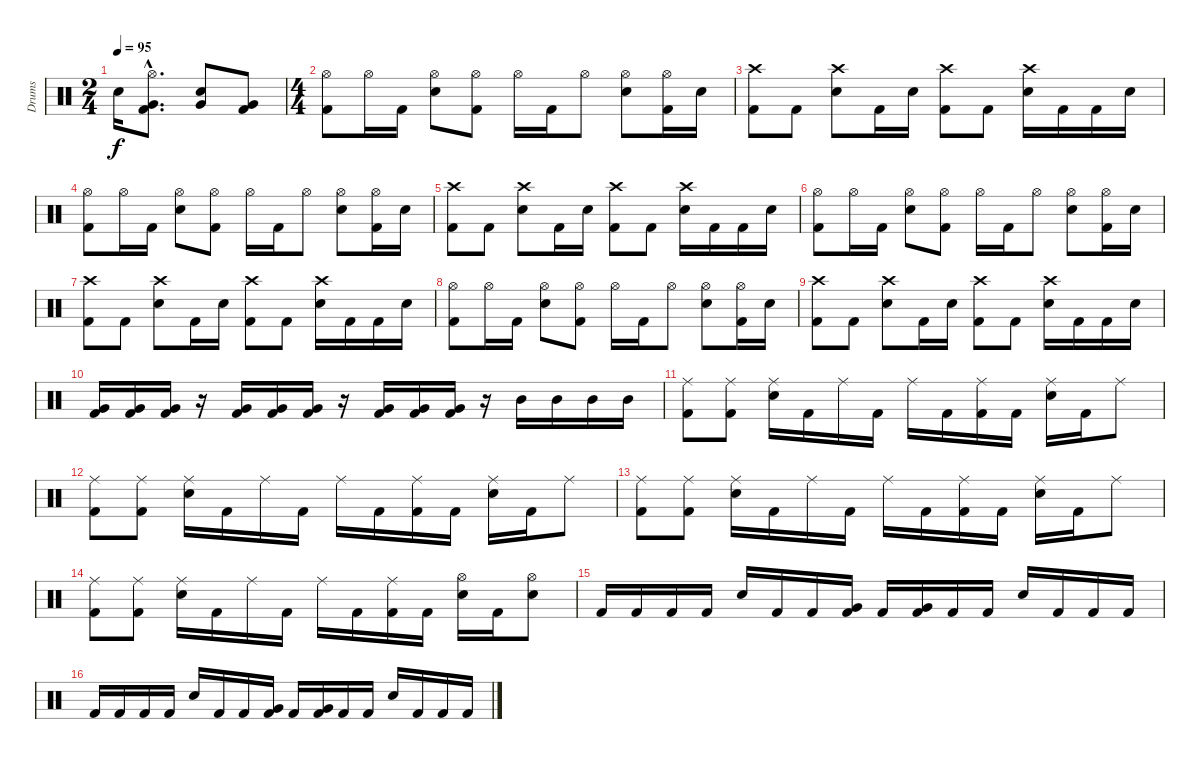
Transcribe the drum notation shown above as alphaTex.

\track ("Drums" "Drums") {instrument percussion}
\staff {score}
\articulation defaults
\ts (2 4)
\tempo 95
\clef neutral
\ks c "Snare (hit)"{t}.16{dy f}
("Hi-Hat (open)"{hac} "Kick (hit) 2"{hac} "Very Low Tom (hit)"{hac}).8{d} ("Snare (hit) 2" "Very Low Tom (hit)").8 ("Kick (hit) 2" "Very Low Tom (hit)").8 |
\ts (4 4)
("Hi-Hat (open)" "Kick (hit) 2").8 "Hi-Hat (open)".16 "Kick (hit) 2".16 ("Hi-Hat (open)" "Snare (hit) 2").8 ("Hi-Hat (open)" "Kick (hit) 2").8 "Hi-Hat (open)".16 "Kick (hit) 2".16 "Hi-Hat (open)".8 ("Hi-Hat (open)" "Snare (hit) 2").8 ("Hi-Hat (open)" "Kick (hit) 2").16 "Snare (hit) 2".16 |
("Crash high (hit)" "Kick (hit) 2").8 "Kick (hit) 2".8 ("Crash high (hit)" "Snare (hit) 2").8 "Kick (hit) 2".16 "Snare (hit) 2".16 ("Crash high (hit)" "Kick (hit) 2").8 "Kick (hit) 2".8 ("Crash high (hit)" "Snare (hit) 2").16 "Kick (hit) 2".16 "Kick (hit) 2".16 "Snare (hit) 2".16 |
("Hi-Hat (open)" "Kick (hit) 2").8 "Hi-Hat (open)".16 "Kick (hit) 2".16 ("Hi-Hat (open)" "Snare (hit) 2").8 ("Hi-Hat (open)" "Kick (hit) 2").8 "Hi-Hat (open)".16 "Kick (hit) 2".16 "Hi-Hat (open)".8 ("Hi-Hat (open)" "Snare (hit) 2").8 ("Hi-Hat (open)" "Kick (hit) 2").16 "Snare (hit) 2".16 |
("Crash high (hit)" "Kick (hit) 2").8 "Kick (hit) 2".8 ("Crash high (hit)" "Snare (hit) 2").8 "Kick (hit) 2".16 "Snare (hit) 2".16 ("Crash high (hit)" "Kick (hit) 2").8 "Kick (hit) 2".8 ("Crash high (hit)" "Snare (hit) 2").16 "Kick (hit) 2".16 "Kick (hit) 2".16 "Snare (hit) 2".16 |
("Hi-Hat (open)" "Kick (hit) 2").8 "Hi-Hat (open)".16 "Kick (hit) 2".16 ("Hi-Hat (open)" "Snare (hit) 2").8 ("Hi-Hat (open)" "Kick (hit) 2").8 "Hi-Hat (open)".16 "Kick (hit) 2".16 "Hi-Hat (open)".8 ("Hi-Hat (open)" "Snare (hit) 2").8 ("Hi-Hat (open)" "Kick (hit) 2").16 "Snare (hit) 2".16 |
("Crash high (hit)" "Kick (hit) 2").8 "Kick (hit) 2".8 ("Crash high (hit)" "Snare (hit) 2").8 "Kick (hit) 2".16 "Snare (hit) 2".16 ("Crash high (hit)" "Kick (hit) 2").8 "Kick (hit) 2".8 ("Crash high (hit)" "Snare (hit) 2").16 "Kick (hit) 2".16 "Kick (hit) 2".16 "Snare (hit) 2".16 |
("Hi-Hat (open)" "Kick (hit) 2").8 "Hi-Hat (open)".16 "Kick (hit) 2".16 ("Hi-Hat (open)" "Snare (hit) 2").8 ("Hi-Hat (open)" "Kick (hit) 2").8 "Hi-Hat (open)".16 "Kick (hit) 2".16 "Hi-Hat (open)".8 ("Hi-Hat (open)" "Snare (hit) 2").8 ("Hi-Hat (open)" "Kick (hit) 2").16 "Snare (hit) 2".16 |
("Crash high (hit)" "Kick (hit) 2").8 "Kick (hit) 2".8 ("Crash high (hit)" "Snare (hit) 2").8 "Kick (hit) 2".16 "Snare (hit) 2".16 ("Crash high (hit)" "Kick (hit) 2").8 "Kick (hit) 2".8 ("Crash high (hit)" "Snare (hit) 2").16 "Kick (hit) 2".16 "Kick (hit) 2".16 "Snare (hit) 2".16 |
("Kick (hit) 2" "Very Low Tom (hit)").16 ("Kick (hit) 2" "Very Low Tom (hit)").16 ("Kick (hit) 2" "Very Low Tom (hit)").16 r.16 ("Kick (hit) 2" "Very Low Tom (hit)").16 ("Kick (hit) 2" "Very Low Tom (hit)").16 ("Kick (hit) 2" "Very Low Tom (hit)").16 r.16 ("Kick (hit) 2" "Very Low Tom (hit)").16 ("Kick (hit) 2" "Very Low Tom (hit)").16 ("Kick (hit) 2" "Very Low Tom (hit)").16 r.16 "Mid Tom (hit)".16 "Mid Tom (hit)".16 "Mid Tom (hit)".16 "Mid Tom (hit)".16 |
("Ride (middle)" "Kick (hit) 2").8 ("Ride (middle)" "Kick (hit) 2").8 ("Ride (middle)" "Snare (hit) 2").16 "Kick (hit) 2".16 "Ride (middle)".16 "Kick (hit) 2".16 "Ride (middle)".16 "Kick (hit) 2".16 ("Ride (middle)" "Kick (hit) 2").16 "Kick (hit) 2".16 ("Ride (middle)" "Snare (hit) 2").16 "Kick (hit) 2".16 "Ride (middle)".8 |
("Ride (middle)" "Kick (hit) 2").8 ("Ride (middle)" "Kick (hit) 2").8 ("Ride (middle)" "Snare (hit) 2").16 "Kick (hit) 2".16 "Ride (middle)".16 "Kick (hit) 2".16 "Ride (middle)".16 "Kick (hit) 2".16 ("Ride (middle)" "Kick (hit) 2").16 "Kick (hit) 2".16 ("Ride (middle)" "Snare (hit) 2").16 "Kick (hit) 2".16 "Ride (middle)".8 |
("Ride (middle)" "Kick (hit) 2").8 ("Ride (middle)" "Kick (hit) 2").8 ("Ride (middle)" "Snare (hit) 2").16 "Kick (hit) 2".16 "Ride (middle)".16 "Kick (hit) 2".16 "Ride (middle)".16 "Kick (hit) 2".16 ("Ride (middle)" "Kick (hit) 2").16 "Kick (hit) 2".16 ("Ride (middle)" "Snare (hit) 2").16 "Kick (hit) 2".16 "Ride (middle)".8 |
("Ride (middle)" "Kick (hit) 2").8 ("Ride (middle)" "Kick (hit) 2").8 ("Ride (middle)" "Snare (hit) 2").16 "Kick (hit) 2".16 "Ride (middle)".16 "Kick (hit) 2".16 "Ride (middle)".16 "Kick (hit) 2".16 ("Ride (middle)" "Kick (hit) 2").16 "Kick (hit) 2".16 ("Hi-Hat (open)" "Snare (hit) 2").16 "Kick (hit) 2".16 ("Hi-Hat (open)" "Snare (hit) 2").8 |
"Kick (hit) 2".16 "Kick (hit) 2".16 "Kick (hit) 2".16 "Kick (hit) 2".16 "Snare (hit) 2".16 "Kick (hit) 2".16 "Kick (hit) 2".16 ("Kick (hit) 2" "Very Low Tom (hit)").16 "Kick (hit) 2".16 ("Kick (hit) 2" "Very Low Tom (hit)").16 "Kick (hit) 2".16 "Kick (hit) 2".16 "Snare (hit) 2".16 "Kick (hit) 2".16 "Kick (hit) 2".16 "Kick (hit) 2".16 |
"Kick (hit) 2".16 "Kick (hit) 2".16 "Kick (hit) 2".16 "Kick (hit) 2".16 "Snare (hit) 2".16 "Kick (hit) 2".16 "Kick (hit) 2".16 ("Kick (hit) 2" "Very Low Tom (hit)").16 "Kick (hit) 2".16 ("Kick (hit) 2" "Very Low Tom (hit)").16 "Kick (hit) 2".16 "Kick (hit) 2".16 "Snare (hit) 2".16 "Kick (hit) 2".16 "Kick (hit) 2".16 "Kick (hit) 2".16
